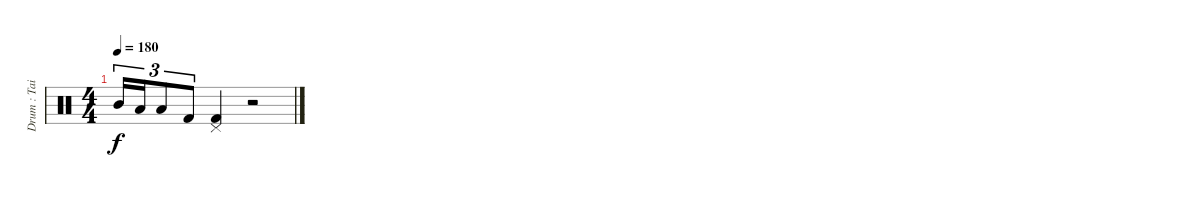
\track ("Drum : Tainaka Ritsu - Chan" "Drum : Tai") {instrument percussion}
\staff {score}
\articulation defaults
\ts (4 4)
\tempo 180
\clef neutral
\ks c "Mid Tom (hit)".16{tu (3 2) dy f} "Low Tom (hit)".16{tu (3 2)} "Low Floor Tom (hit)".8{tu (3 2)} "Kick (hit) 2".8{tu (3 2)}
("Pedal Hi-Hat (hit)" "Kick (hit) 2").4 r.2
